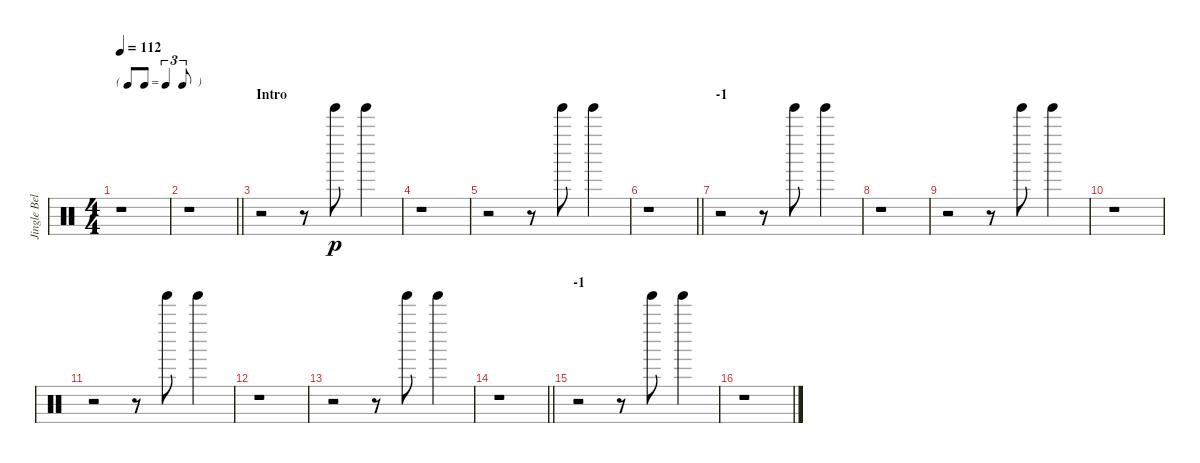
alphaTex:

\track ("Jingle Bell" "Jingle Bel") {instrument percussion}
\staff {score}
\articulation defaults
\ts (4 4)
\tf triplet8th
\tempo 112
\clef neutral
\ks c
r.1{dy p} |
\barLineRight lightlight
r.1 |
\section ("" "Intro")
r.2 r.8 "Tinkle Bell (hit)".8 "Tinkle Bell (hit)".4 |
r.1 |
r.2 r.8 "Tinkle Bell (hit)".8 "Tinkle Bell (hit)".4 |
\barLineRight lightlight
r.1 |
\section ("" "-1")
r.2 r.8 "Tinkle Bell (hit)".8 "Tinkle Bell (hit)".4 |
r.1 |
r.2 r.8 "Tinkle Bell (hit)".8 "Tinkle Bell (hit)".4 |
r.1 |
r.2 r.8 "Tinkle Bell (hit)".8 "Tinkle Bell (hit)".4 |
r.1 |
r.2 r.8 "Tinkle Bell (hit)".8 "Tinkle Bell (hit)".4 |
\barLineRight lightlight
r.1 |
\section ("" "-1")
r.2 r.8 "Tinkle Bell (hit)".8 "Tinkle Bell (hit)".4 |
r.1
